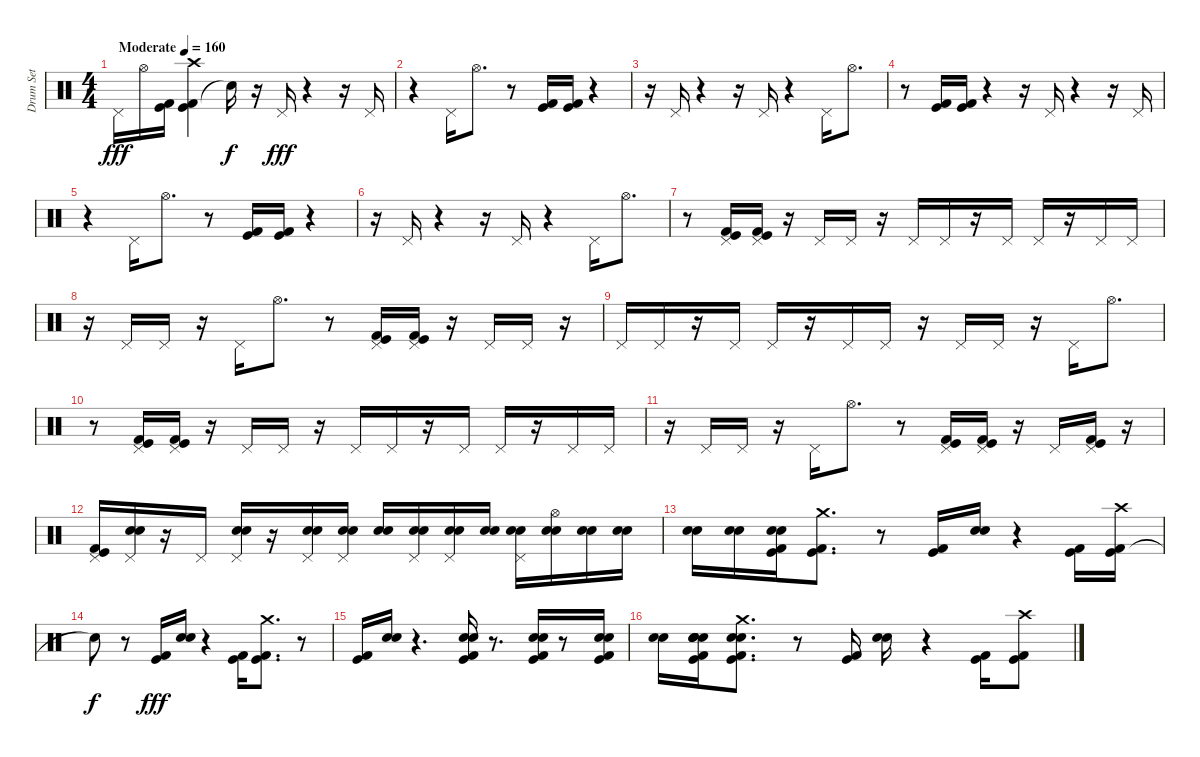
\track ("Drum Set" "Drum Set") {instrument percussion}
\staff {score}
\articulation defaults
\ts (4 4)
\tempo (160 "Moderate")
\clef neutral
\ks c "Pedal Hi-Hat (hit)".16{dy fff} "Hi-Hat (open)".16
("Kick (hit)" "Kick (hit) 2").16 ("Kick (hit)" "Kick (hit) 2" "Crash high (hit)").4 "Snare (hit)"{t}.16{dy f} r.16 "Pedal Hi-Hat (hit)".16{dy fff} r.4 r.16 "Pedal Hi-Hat (hit)".16 |
r.4 "Pedal Hi-Hat (hit)".16 "Hi-Hat (open)".8{d} r.8 ("Kick (hit) 2" "Kick (hit)").16 ("Kick (hit) 2" "Kick (hit)").16 r.4 |
r.16 "Pedal Hi-Hat (hit)".16 r.4 r.16 "Pedal Hi-Hat (hit)".16 r.4 "Pedal Hi-Hat (hit)".16 "Hi-Hat (open)".8{d} |
r.8 ("Kick (hit) 2" "Kick (hit)").16 ("Kick (hit) 2" "Kick (hit)").16 r.4 r.16 "Pedal Hi-Hat (hit)".16 r.4 r.16 "Pedal Hi-Hat (hit)".16 |
r.4 "Pedal Hi-Hat (hit)".16 "Hi-Hat (open)".8{d} r.8 ("Kick (hit)" "Kick (hit) 2").16 ("Kick (hit)" "Kick (hit) 2").16 r.4 |
r.16 "Pedal Hi-Hat (hit)".16 r.4 r.16 "Pedal Hi-Hat (hit)".16 r.4 "Pedal Hi-Hat (hit)".16 "Hi-Hat (open)".8{d} |
r.8 ("Pedal Hi-Hat (hit)" "Kick (hit) 2" "Kick (hit)").16 ("Pedal Hi-Hat (hit)" "Kick (hit) 2" "Kick (hit)").16 r.16 "Pedal Hi-Hat (hit)".16 "Pedal Hi-Hat (hit)".16 r.16 "Pedal Hi-Hat (hit)".16 "Pedal Hi-Hat (hit)".16 r.16 "Pedal Hi-Hat (hit)".16 "Pedal Hi-Hat (hit)".16 r.16 "Pedal Hi-Hat (hit)".16 "Pedal Hi-Hat (hit)".16 |
r.16 "Pedal Hi-Hat (hit)".16 "Pedal Hi-Hat (hit)".16 r.16 "Pedal Hi-Hat (hit)".16 "Hi-Hat (open)".8{d} r.8 ("Kick (hit) 2" "Kick (hit)" "Pedal Hi-Hat (hit)").16 ("Kick (hit) 2" "Kick (hit)" "Pedal Hi-Hat (hit)").16 r.16 "Pedal Hi-Hat (hit)".16 "Pedal Hi-Hat (hit)".16 r.16 |
"Pedal Hi-Hat (hit)".16 "Pedal Hi-Hat (hit)".16 r.16 "Pedal Hi-Hat (hit)".16 "Pedal Hi-Hat (hit)".16 r.16 "Pedal Hi-Hat (hit)".16 "Pedal Hi-Hat (hit)".16 r.16 "Pedal Hi-Hat (hit)".16 "Pedal Hi-Hat (hit)".16 r.16 "Pedal Hi-Hat (hit)".16 "Hi-Hat (open)".8{d} |
r.8 ("Kick (hit) 2" "Kick (hit)" "Pedal Hi-Hat (hit)").16 ("Pedal Hi-Hat (hit)" "Kick (hit) 2" "Kick (hit)").16 r.16 "Pedal Hi-Hat (hit)".16 "Pedal Hi-Hat (hit)".16 r.16 "Pedal Hi-Hat (hit)".16 "Pedal Hi-Hat (hit)".16 r.16 "Pedal Hi-Hat (hit)".16 "Pedal Hi-Hat (hit)".16 r.16 "Pedal Hi-Hat (hit)".16 "Pedal Hi-Hat (hit)".16 |
r.16 "Pedal Hi-Hat (hit)".16 "Pedal Hi-Hat (hit)".16 r.16 "Pedal Hi-Hat (hit)".16 "Hi-Hat (open)".8{d} r.8 ("Pedal Hi-Hat (hit)" "Kick (hit)" "Kick (hit) 2").16 ("Pedal Hi-Hat (hit)" "Kick (hit)" "Kick (hit) 2").16 r.16 "Pedal Hi-Hat (hit)".16 ("Kick (hit)" "Pedal Hi-Hat (hit)" "Kick (hit) 2").16 r.16 |
("Pedal Hi-Hat (hit)" "Kick (hit) 2" "Kick (hit)").16 ("Pedal Hi-Hat (hit)" "Electric Snare (hit)" "Snare (hit) 2").16 r.16 "Pedal Hi-Hat (hit)".16 ("Snare (hit) 2" "Electric Snare (hit)" "Pedal Hi-Hat (hit)").16 r.16 ("Snare (hit) 2" "Electric Snare (hit)" "Pedal Hi-Hat (hit)").16 ("Pedal Hi-Hat (hit)" "Electric Snare (hit)" "Snare (hit) 2").16 ("Snare (hit) 2" "Electric Snare (hit)").16 ("Snare (hit) 2" "Electric Snare (hit)" "Pedal Hi-Hat (hit)").16 ("Snare (hit) 2" "Electric Snare (hit)" "Pedal Hi-Hat (hit)").16 ("Snare (hit) 2" "Electric Snare (hit)").16 ("Snare (hit) 2" "Electric Snare (hit)" "Pedal Hi-Hat (hit)").16 ("Snare (hit) 2" "Electric Snare (hit)" "Hi-Hat (open)").16 ("Snare (hit) 2" "Electric Snare (hit)").16 ("Snare (hit) 2" "Electric Snare (hit)").16 |
("Electric Snare (hit)" "Snare (hit) 2").16 ("Snare (hit) 2" "Electric Snare (hit)").16 ("Snare (hit) 2" "Electric Snare (hit)" "Kick (hit) 2" "Kick (hit)").16 ("Kick (hit) 2" "Kick (hit)" "Crash medium (hit)").8{d} r.8 ("Kick (hit) 2" "Kick (hit)").16 ("Electric Snare (hit)" "Snare (hit) 2").16 r.4 ("Kick (hit) 2" "Kick (hit)").16 ("Kick (hit)" "Kick (hit) 2" "Crash high (hit)").16 |
"Snare (hit)"{t}.8{dy f} r.8 ("Kick (hit)" "Kick (hit) 2").16{dy fff} ("Snare (hit) 2" "Electric Snare (hit)").16 r.4 ("Kick (hit) 2" "Kick (hit)").16 ("Kick (hit)" "Kick (hit) 2" "Crash medium (hit)").8{d} r.8 |
("Kick (hit) 2" "Kick (hit)").16 ("Snare (hit) 2" "Electric Snare (hit)").16 r.4{d} ("Kick (hit) 2" "Kick (hit)" "Snare (hit) 2" "Electric Snare (hit)").16 r.8{d} ("Kick (hit)" "Kick (hit) 2" "Snare (hit) 2" "Electric Snare (hit)").16 r.8 ("Kick (hit)" "Kick (hit) 2" "Snare (hit) 2" "Electric Snare (hit)").16 |
("Electric Snare (hit)" "Snare (hit) 2").16 ("Kick (hit)" "Kick (hit) 2" "Electric Snare (hit)" "Snare (hit) 2" "Snare (hit) 2" "Electric Snare (hit)").16 ("Snare (hit) 2" "Electric Snare (hit)" "Kick (hit) 2" "Kick (hit)" "Crash medium (hit)").8{d} r.8 ("Kick (hit) 2" "Kick (hit)").16 ("Electric Snare (hit)" "Snare (hit) 2").16 r.4 ("Kick (hit) 2" "Kick (hit)").16 ("Kick (hit)" "Kick (hit) 2" "Crash high (hit)").8
